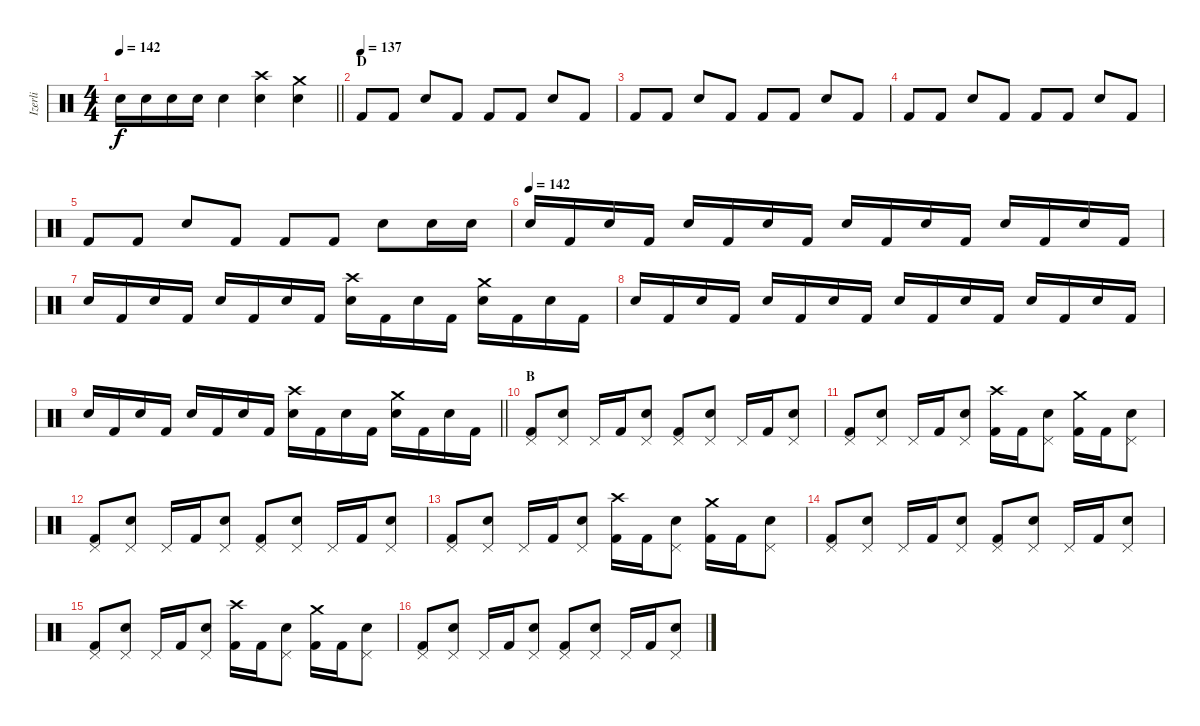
\track ("Izerli" "Izerli") {instrument percussion}
\staff {score}
\articulation defaults
\ts (4 4)
\tempo 142
\clef neutral
\barLineRight lightlight
\ks c "Electric Snare (hit)".16{dy f} "Electric Snare (hit)".16 "Electric Snare (hit)".16 "Electric Snare (hit)".16 "Electric Snare (hit)".4
("Crash high (hit)" "Electric Snare (hit)").4 ("Crash medium (hit)" "Electric Snare (hit)").4 |
\section ("" "D")
\tempo (137)
"Kick (hit) 2".8 "Kick (hit) 2".8 "Electric Snare (hit)".8 "Kick (hit) 2".8 "Kick (hit) 2".8 "Kick (hit) 2".8 "Electric Snare (hit)".8 "Kick (hit) 2".8 |
"Kick (hit) 2".8 "Kick (hit) 2".8 "Electric Snare (hit)".8 "Kick (hit) 2".8 "Kick (hit) 2".8 "Kick (hit) 2".8 "Electric Snare (hit)".8 "Kick (hit) 2".8 |
"Kick (hit) 2".8 "Kick (hit) 2".8 "Electric Snare (hit)".8 "Kick (hit) 2".8 "Kick (hit) 2".8 "Kick (hit) 2".8 "Electric Snare (hit)".8 "Kick (hit) 2".8 |
"Kick (hit) 2".8 "Kick (hit) 2".8 "Electric Snare (hit)".8 "Kick (hit) 2".8 "Kick (hit) 2".8 "Kick (hit) 2".8 "Electric Snare (hit)".8 "Electric Snare (hit)".16 "Electric Snare (hit)".16 |
\tempo (142)
"Electric Snare (hit)".16 "Kick (hit) 2".16 "Electric Snare (hit)".16 "Kick (hit) 2".16 "Electric Snare (hit)".16 "Kick (hit) 2".16 "Electric Snare (hit)".16 "Kick (hit) 2".16 "Electric Snare (hit)".16 "Kick (hit) 2".16 "Electric Snare (hit)".16 "Kick (hit) 2".16 "Electric Snare (hit)".16 "Kick (hit) 2".16 "Electric Snare (hit)".16 "Kick (hit) 2".16 |
"Electric Snare (hit)".16 "Kick (hit) 2".16 "Electric Snare (hit)".16 "Kick (hit) 2".16 "Electric Snare (hit)".16 "Kick (hit) 2".16 "Electric Snare (hit)".16 "Kick (hit) 2".16 ("Crash high (hit)" "Electric Snare (hit)").16 "Kick (hit) 2".16 "Electric Snare (hit)".16 "Kick (hit) 2".16 ("Crash medium (hit)" "Electric Snare (hit)").16 "Kick (hit) 2".16 "Electric Snare (hit)".16 "Kick (hit) 2".16 |
"Electric Snare (hit)".16 "Kick (hit) 2".16 "Electric Snare (hit)".16 "Kick (hit) 2".16 "Electric Snare (hit)".16 "Kick (hit) 2".16 "Electric Snare (hit)".16 "Kick (hit) 2".16 "Electric Snare (hit)".16 "Kick (hit) 2".16 "Electric Snare (hit)".16 "Kick (hit) 2".16 "Electric Snare (hit)".16 "Kick (hit) 2".16 "Electric Snare (hit)".16 "Kick (hit) 2".16 |
\barLineRight lightlight "Electric Snare (hit)".16 "Kick (hit) 2".16 "Electric Snare (hit)".16 "Kick (hit) 2".16 "Electric Snare (hit)".16 "Kick (hit) 2".16 "Electric Snare (hit)".16 "Kick (hit) 2".16
("Crash high (hit)" "Electric Snare (hit)").16 "Kick (hit) 2".16 "Electric Snare (hit)".16 "Kick (hit) 2".16 ("Crash medium (hit)" "Electric Snare (hit)").16 "Kick (hit) 2".16 "Electric Snare (hit)".16 "Kick (hit) 2".16 |
\section ("" "B")
("Pedal Hi-Hat (hit)" "Kick (hit) 2").8 ("Pedal Hi-Hat (hit)" "Electric Snare (hit)").8 "Pedal Hi-Hat (hit)".16 "Kick (hit) 2".16 ("Pedal Hi-Hat (hit)" "Electric Snare (hit)").8 ("Pedal Hi-Hat (hit)" "Kick (hit) 2").8 ("Pedal Hi-Hat (hit)" "Electric Snare (hit)").8 "Pedal Hi-Hat (hit)".16 "Kick (hit) 2".16 ("Pedal Hi-Hat (hit)" "Electric Snare (hit)").8 |
("Pedal Hi-Hat (hit)" "Kick (hit) 2").8 ("Pedal Hi-Hat (hit)" "Electric Snare (hit)").8 "Pedal Hi-Hat (hit)".16 "Kick (hit) 2".16 ("Pedal Hi-Hat (hit)" "Electric Snare (hit)").8 ("Crash high (hit)" "Kick (hit) 2").16 "Kick (hit) 2".16 ("Pedal Hi-Hat (hit)" "Electric Snare (hit)").8 ("Crash medium (hit)" "Kick (hit) 2").16 "Kick (hit) 2".16 ("Pedal Hi-Hat (hit)" "Electric Snare (hit)").8 |
("Pedal Hi-Hat (hit)" "Kick (hit) 2").8 ("Pedal Hi-Hat (hit)" "Electric Snare (hit)").8 "Pedal Hi-Hat (hit)".16 "Kick (hit) 2".16 ("Pedal Hi-Hat (hit)" "Electric Snare (hit)").8 ("Pedal Hi-Hat (hit)" "Kick (hit) 2").8 ("Pedal Hi-Hat (hit)" "Electric Snare (hit)").8 "Pedal Hi-Hat (hit)".16 "Kick (hit) 2".16 ("Pedal Hi-Hat (hit)" "Electric Snare (hit)").8 |
("Pedal Hi-Hat (hit)" "Kick (hit) 2").8 ("Pedal Hi-Hat (hit)" "Electric Snare (hit)").8 "Pedal Hi-Hat (hit)".16 "Kick (hit) 2".16 ("Pedal Hi-Hat (hit)" "Electric Snare (hit)").8 ("Crash high (hit)" "Kick (hit) 2").16 "Kick (hit) 2".16 ("Pedal Hi-Hat (hit)" "Electric Snare (hit)").8 ("Crash medium (hit)" "Kick (hit) 2").16 "Kick (hit) 2".16 ("Pedal Hi-Hat (hit)" "Electric Snare (hit)").8 |
("Pedal Hi-Hat (hit)" "Kick (hit) 2").8 ("Pedal Hi-Hat (hit)" "Electric Snare (hit)").8 "Pedal Hi-Hat (hit)".16 "Kick (hit) 2".16 ("Pedal Hi-Hat (hit)" "Electric Snare (hit)").8 ("Pedal Hi-Hat (hit)" "Kick (hit) 2").8 ("Pedal Hi-Hat (hit)" "Electric Snare (hit)").8 "Pedal Hi-Hat (hit)".16 "Kick (hit) 2".16 ("Pedal Hi-Hat (hit)" "Electric Snare (hit)").8 |
("Pedal Hi-Hat (hit)" "Kick (hit) 2").8 ("Pedal Hi-Hat (hit)" "Electric Snare (hit)").8 "Pedal Hi-Hat (hit)".16 "Kick (hit) 2".16 ("Pedal Hi-Hat (hit)" "Electric Snare (hit)").8 ("Crash high (hit)" "Kick (hit) 2").16 "Kick (hit) 2".16 ("Pedal Hi-Hat (hit)" "Electric Snare (hit)").8 ("Crash medium (hit)" "Kick (hit) 2").16 "Kick (hit) 2".16 ("Pedal Hi-Hat (hit)" "Electric Snare (hit)").8 |
("Pedal Hi-Hat (hit)" "Kick (hit) 2").8 ("Pedal Hi-Hat (hit)" "Electric Snare (hit)").8 "Pedal Hi-Hat (hit)".16 "Kick (hit) 2".16 ("Pedal Hi-Hat (hit)" "Electric Snare (hit)").8 ("Pedal Hi-Hat (hit)" "Kick (hit) 2").8 ("Pedal Hi-Hat (hit)" "Electric Snare (hit)").8 "Pedal Hi-Hat (hit)".16 "Kick (hit) 2".16 ("Pedal Hi-Hat (hit)" "Electric Snare (hit)").8
